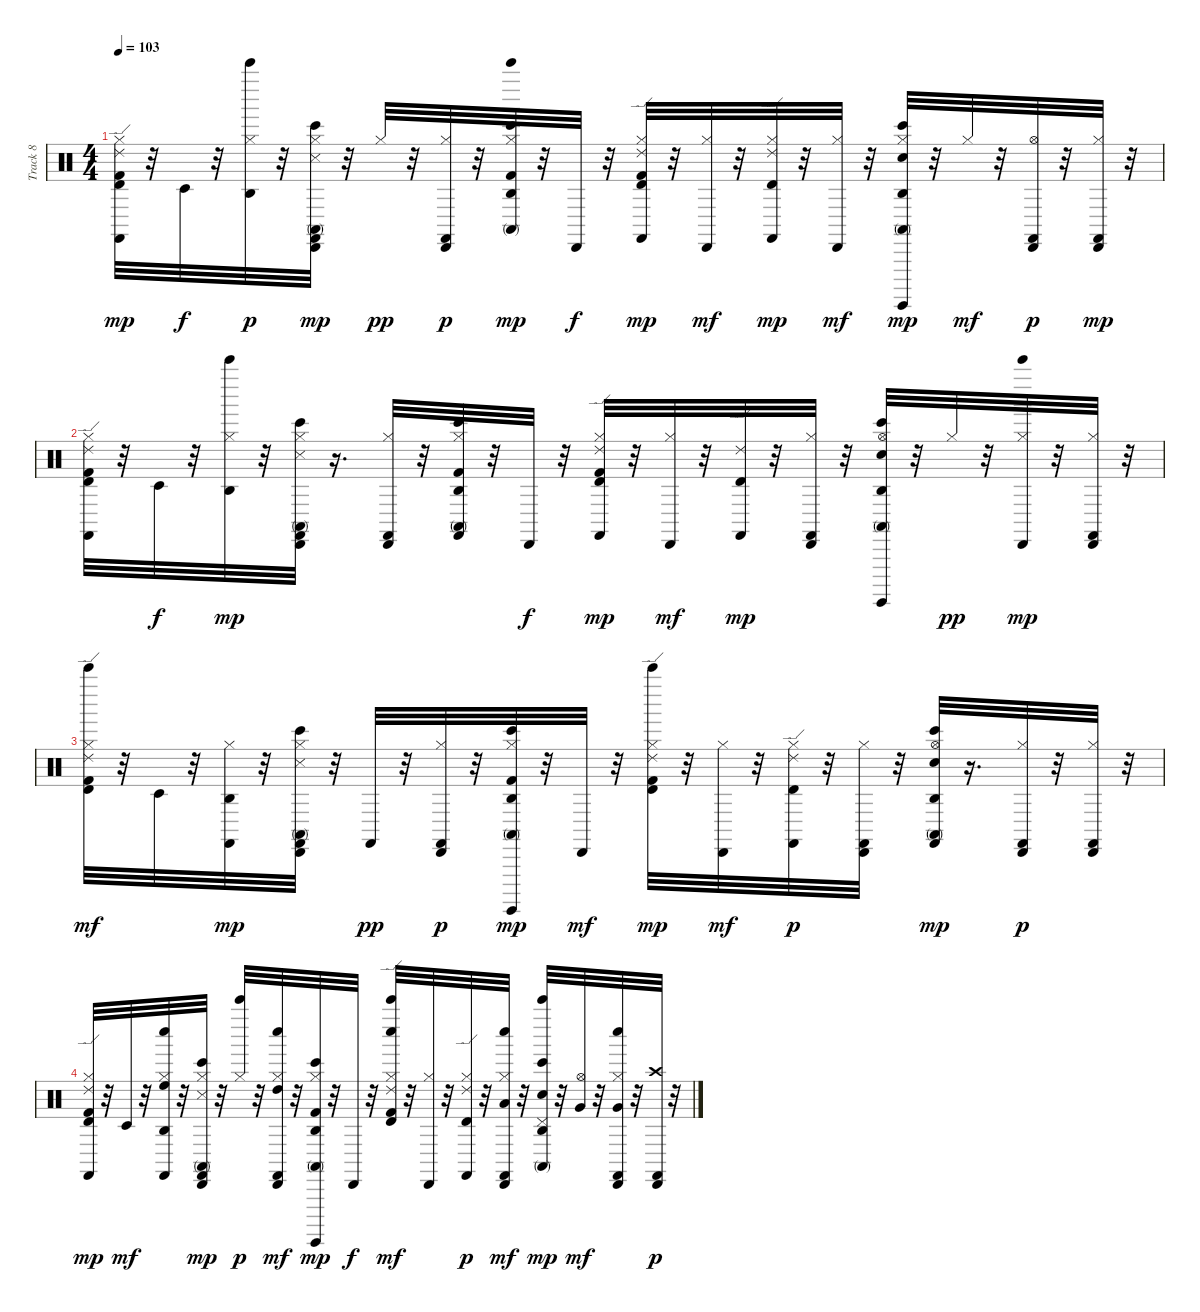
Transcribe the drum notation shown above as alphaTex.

\track ("Track 8" "Track 8") {instrument percussion}
\staff {score}
\articulation defaults
\ts (4 4)
\tempo 103
\clef neutral
\ks c
("Ride (edge) 2" "Timbale high (hit)" "Kick (hit) 2" "Hi-Hat (closed)" "Castanets (hit)").32{dy mp} r.32 "Timbale low (hit)".32{dy f} r.32 ("Agogo high (hit)" "Hi-Hat (closed)" "Bell Tree (hit)").32{dy p} r.32 ("Bongo High (hit)" "Conga high (mute)" "Cabasa (hit)" "Snare (side stick) 3" "Hi-Hat (closed)" "Castanets (hit)").32{dy mp} r.32 "Hi-Hat (closed)".32{dy pp} r.32 ("Cabasa (hit)" "Hi-Hat (closed)" "Castanets (hit)").32{dy p} r.32 ("Bongo High (hit)" "Conga high (mute)" "Agogo high (hit)" "Kick (hit) 2" "Hi-Hat (closed)" "Bell Tree (hit)").32{dy mp} r.32 "Cabasa (hit)".32{dy f} r.32 ("Ride (edge) 2" "Timbale high (hit)" "Kick (hit) 2" "Hi-Hat (closed)" "Castanets (hit)").32{dy mp} r.32 ("Cabasa (hit)" "Hi-Hat (closed)").32{dy mf} r.32 ("Ride (edge) 2" "Timbale high (hit)" "Hi-Hat (closed)" "Castanets (hit)").32{dy mp} r.32 ("Cabasa (hit)" "Hi-Hat (closed)").32{dy mf} r.32 ("Bongo High (hit)" "Conga high (mute)" "Agogo high (hit)" "Electric Snare (hit)" "Hi-Hat (closed)" "Surdo (hit)").32{dy mp} r.32 "Hi-Hat (closed)".32{dy mf} r.32 ("Cabasa (hit)" "Hi-Hat (open)" "Castanets (hit)").32{dy p} r.32 ("Cabasa (hit)" "Hi-Hat (closed)" "Castanets (hit)").32{dy mp} r.32 |
("Ride (edge) 2" "Timbale high (hit)" "Kick (hit) 2" "Hi-Hat (closed)" "Castanets (hit)").32 r.32 "Timbale low (hit)".32{dy f} r.32 ("Agogo high (hit)" "Hi-Hat (closed)" "Bell Tree (hit)").32{dy mp} r.32 ("Bongo High (hit)" "Conga high (mute)" "Cabasa (hit)" "Snare (side stick) 3" "Hi-Hat (closed)" "Castanets (hit)").32 r.16{d} ("Cabasa (hit)" "Hi-Hat (closed)" "Castanets (hit)").32 r.32 ("Bongo High (hit)" "Conga high (mute)" "Agogo high (hit)" "Kick (hit) 2" "Hi-Hat (closed)" "Castanets (hit)").32 r.32 "Cabasa (hit)".32{dy f} r.32 ("Ride (edge) 2" "Timbale high (hit)" "Kick (hit) 2" "Hi-Hat (closed)" "Castanets (hit)").32{dy mp} r.32 ("Cabasa (hit)" "Hi-Hat (closed)").32{dy mf} r.32 ("Ride (edge) 2" "Timbale high (hit)" "Castanets (hit)").32{dy mp} r.32 ("Cabasa (hit)" "Hi-Hat (closed)" "Castanets (hit)").32 r.32 ("Bongo High (hit)" "Conga high (mute)" "Agogo high (hit)" "Electric Snare (hit)" "Hi-Hat (open)" "Surdo (hit)").32 r.32 "Hi-Hat (closed)".32{dy pp} r.32 ("Cabasa (hit)" "Hi-Hat (closed)" "Bell Tree (hit)").32{dy mp} r.32 ("Cabasa (hit)" "Hi-Hat (closed)" "Castanets (hit)").32 r.32 |
("Ride (edge) 2" "Timbale high (hit)" "Kick (hit) 2" "Hi-Hat (closed)" "Bell Tree (hit)").32{dy mf} r.32 "Timbale low (hit)".32 r.32 ("Agogo high (hit)" "Hi-Hat (closed)" "Castanets (hit)").32{dy mp} r.32 ("Bongo High (hit)" "Conga high (mute)" "Cabasa (hit)" "Snare (side stick) 3" "Hi-Hat (closed)" "Castanets (hit)").32 r.32 "Castanets (hit)".32{dy pp} r.32 ("Cabasa (hit)" "Hi-Hat (closed)" "Castanets (hit)").32{dy p} r.32 ("Bongo High (hit)" "Conga high (mute)" "Agogo high (hit)" "Kick (hit) 2" "Hi-Hat (closed)" "Surdo (hit)").32{dy mp} r.32 "Cabasa (hit)".32{dy mf} r.32 ("Ride (edge) 2" "Timbale high (hit)" "Kick (hit) 2" "Hi-Hat (closed)" "Bell Tree (hit)").32{dy mp} r.32 ("Cabasa (hit)" "Hi-Hat (closed)").32{dy mf} r.32 ("Ride (edge) 2" "Timbale high (hit)" "Hi-Hat (closed)" "Castanets (hit)").32{dy p} r.32 ("Cabasa (hit)" "Hi-Hat (closed)" "Castanets (hit)").32 r.32 ("Bongo High (hit)" "Conga high (mute)" "Agogo high (hit)" "Electric Snare (hit)" "Hi-Hat (open)" "Castanets (hit)").32{dy mp} r.16{d} ("Cabasa (hit)" "Hi-Hat (closed)" "Castanets (hit)").32{dy p} r.32 ("Cabasa (hit)" "Hi-Hat (closed)" "Castanets (hit)").32 r.32 |
("Ride (edge) 2" "Timbale high (hit)" "Kick (hit) 2" "Hi-Hat (closed)" "Castanets (hit)").32{dy mp} r.32 "Timbale low (hit)".32{dy mf} r.32 ("Agogo high (hit)" "Hi-Hat (closed)" "Castanets (hit)" "Whistle low (hit)" "High Floor Tom (hit)").32 r.32 ("Bongo High (hit)" "Conga high (mute)" "Cabasa (hit)" "Snare (side stick) 3" "Hi-Hat (closed)" "Castanets (hit)").32{dy mp} r.32 ("Hi-Hat (closed)" "Bell Tree (hit)").32{dy p} r.32 ("Cabasa (hit)" "Hi-Hat (closed)" "Castanets (hit)" "Whistle low (hit)" "High Tom (hit)").32{dy mf} r.32 ("Bongo High (hit)" "Conga high (mute)" "Agogo high (hit)" "Kick (hit) 2" "Hi-Hat (closed)" "Surdo (hit)").32{dy mp} r.32 "Cabasa (hit)".32{dy f} r.32 ("Ride (edge) 2" "Timbale high (hit)" "Kick (hit) 2" "Hi-Hat (closed)" "Bell Tree (hit)" "Whistle low (hit)").32{dy mf} r.32 ("Cabasa (hit)" "Hi-Hat (closed)").32 r.32 ("Ride (edge) 2" "Timbale high (hit)" "Hi-Hat (closed)" "Castanets (hit)").32{dy p} r.32 ("Cabasa (hit)" "Hi-Hat (closed)" "Castanets (hit)" "Whistle low (hit)" "Low Tom (hit)").32{dy mf} r.32 ("Bongo High (hit)" "Conga high (mute)" "Agogo high (hit)" "Electric Snare (hit)" "Pedal Hi-Hat (hit)" "Bell Tree (hit)").32{dy mp} r.32 ("Hi-Hat (open)" "Very Low Tom (hit)").32{dy mf} r.32 ("Cabasa (hit)" "Hi-Hat (closed)" "Castanets (hit)" "Whistle low (hit)" "Very Low Tom (hit)").32 r.32 ("Cabasa (hit)" "Castanets (hit)" "Crash high (hit)").32{dy p} r.32
